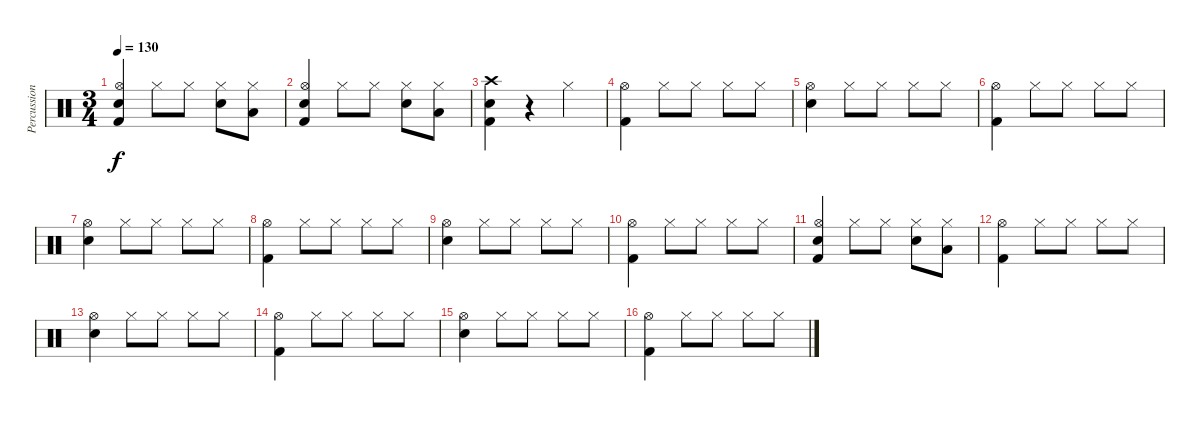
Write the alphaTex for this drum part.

\track ("Percussion" "Percussion") {instrument percussion}
\staff {score}
\articulation defaults
\ts (3 4)
\tempo 130
\clef neutral
\ks c
("Snare (hit) 2" "Hi-Hat (open)" "Kick (hit) 2").4{dy f} "Hi-Hat (closed)".8 "Hi-Hat (closed)".8 ("Snare (hit) 2" "Hi-Hat (closed)").8 ("Low Tom (hit)" "Hi-Hat (closed)").8 |
("Snare (hit) 2" "Hi-Hat (open)" "Kick (hit) 2").4 "Hi-Hat (closed)".8 "Hi-Hat (closed)".8 ("Snare (hit) 2" "Hi-Hat (closed)").8 ("Low Tom (hit)" "Hi-Hat (closed)").8 |
("Snare (hit) 2" "Crash high (hit)" "Kick (hit) 2").4 r.4 "Hi-Hat (closed)".4 |
("Hi-Hat (open)" "Kick (hit) 2").4 "Hi-Hat (closed)".8 "Hi-Hat (closed)".8 "Hi-Hat (closed)".8 "Hi-Hat (closed)".8 |
("Hi-Hat (open)" "Snare (hit) 2").4 "Hi-Hat (closed)".8 "Hi-Hat (closed)".8 "Hi-Hat (closed)".8 "Hi-Hat (closed)".8 |
("Hi-Hat (open)" "Kick (hit) 2").4 "Hi-Hat (closed)".8 "Hi-Hat (closed)".8 "Hi-Hat (closed)".8 "Hi-Hat (closed)".8 |
("Hi-Hat (open)" "Snare (hit) 2").4 "Hi-Hat (closed)".8 "Hi-Hat (closed)".8 "Hi-Hat (closed)".8 "Hi-Hat (closed)".8 |
("Hi-Hat (open)" "Kick (hit) 2").4 "Hi-Hat (closed)".8 "Hi-Hat (closed)".8 "Hi-Hat (closed)".8 "Hi-Hat (closed)".8 |
("Hi-Hat (open)" "Snare (hit) 2").4 "Hi-Hat (closed)".8 "Hi-Hat (closed)".8 "Hi-Hat (closed)".8 "Hi-Hat (closed)".8 |
("Hi-Hat (open)" "Kick (hit) 2").4 "Hi-Hat (closed)".8 "Hi-Hat (closed)".8 "Hi-Hat (closed)".8 "Hi-Hat (closed)".8 |
("Snare (hit) 2" "Hi-Hat (open)" "Kick (hit) 2").4 "Hi-Hat (closed)".8 "Hi-Hat (closed)".8 ("Snare (hit) 2" "Hi-Hat (closed)").8 ("Low Tom (hit)" "Hi-Hat (closed)").8 |
("Hi-Hat (open)" "Kick (hit) 2").4 "Hi-Hat (closed)".8 "Hi-Hat (closed)".8 "Hi-Hat (closed)".8 "Hi-Hat (closed)".8 |
("Hi-Hat (open)" "Snare (hit) 2").4 "Hi-Hat (closed)".8 "Hi-Hat (closed)".8 "Hi-Hat (closed)".8 "Hi-Hat (closed)".8 |
("Hi-Hat (open)" "Kick (hit) 2").4 "Hi-Hat (closed)".8 "Hi-Hat (closed)".8 "Hi-Hat (closed)".8 "Hi-Hat (closed)".8 |
("Hi-Hat (open)" "Snare (hit) 2").4 "Hi-Hat (closed)".8 "Hi-Hat (closed)".8 "Hi-Hat (closed)".8 "Hi-Hat (closed)".8 |
("Hi-Hat (open)" "Kick (hit) 2").4 "Hi-Hat (closed)".8 "Hi-Hat (closed)".8 "Hi-Hat (closed)".8 "Hi-Hat (closed)".8
